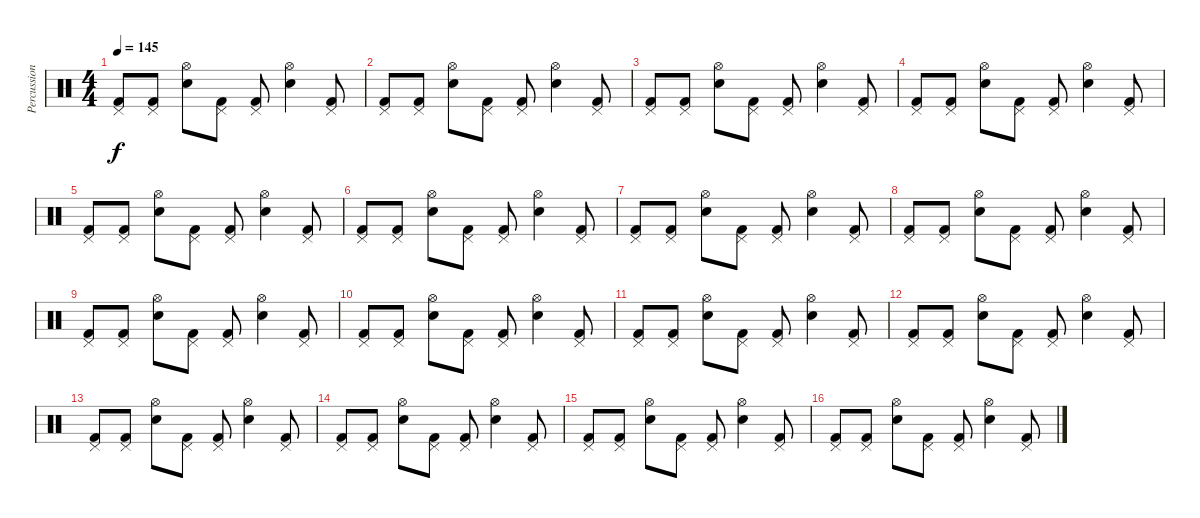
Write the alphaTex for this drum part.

\track ("Percussion" "Percussion") {instrument percussion}
\staff {score}
\articulation defaults
\ts (4 4)
\tempo 145
\clef neutral
\ks c
("Pedal Hi-Hat (hit)" "Kick (hit) 2").8{dy f} ("Pedal Hi-Hat (hit)" "Kick (hit) 2").8 ("Hi-Hat (open)" "Snare (hit) 2").8 ("Pedal Hi-Hat (hit)" "Kick (hit) 2").8 ("Pedal Hi-Hat (hit)" "Kick (hit) 2").8 ("Hi-Hat (open)" "Snare (hit) 2").4 ("Pedal Hi-Hat (hit)" "Kick (hit) 2").8 |
("Pedal Hi-Hat (hit)" "Kick (hit) 2").8 ("Pedal Hi-Hat (hit)" "Kick (hit) 2").8 ("Hi-Hat (open)" "Snare (hit) 2").8 ("Pedal Hi-Hat (hit)" "Kick (hit) 2").8 ("Pedal Hi-Hat (hit)" "Kick (hit) 2").8 ("Hi-Hat (open)" "Snare (hit) 2").4 ("Pedal Hi-Hat (hit)" "Kick (hit) 2").8 |
("Pedal Hi-Hat (hit)" "Kick (hit) 2").8 ("Pedal Hi-Hat (hit)" "Kick (hit) 2").8 ("Hi-Hat (open)" "Snare (hit) 2").8 ("Pedal Hi-Hat (hit)" "Kick (hit) 2").8 ("Pedal Hi-Hat (hit)" "Kick (hit) 2").8 ("Hi-Hat (open)" "Snare (hit) 2").4 ("Pedal Hi-Hat (hit)" "Kick (hit) 2").8 |
("Pedal Hi-Hat (hit)" "Kick (hit) 2").8 ("Pedal Hi-Hat (hit)" "Kick (hit) 2").8 ("Hi-Hat (open)" "Snare (hit) 2").8 ("Pedal Hi-Hat (hit)" "Kick (hit) 2").8 ("Pedal Hi-Hat (hit)" "Kick (hit) 2").8 ("Hi-Hat (open)" "Snare (hit) 2").4 ("Pedal Hi-Hat (hit)" "Kick (hit) 2").8 |
("Pedal Hi-Hat (hit)" "Kick (hit) 2").8 ("Pedal Hi-Hat (hit)" "Kick (hit) 2").8 ("Hi-Hat (open)" "Snare (hit) 2").8 ("Pedal Hi-Hat (hit)" "Kick (hit) 2").8 ("Pedal Hi-Hat (hit)" "Kick (hit) 2").8 ("Hi-Hat (open)" "Snare (hit) 2").4 ("Pedal Hi-Hat (hit)" "Kick (hit) 2").8 |
("Pedal Hi-Hat (hit)" "Kick (hit) 2").8 ("Pedal Hi-Hat (hit)" "Kick (hit) 2").8 ("Hi-Hat (open)" "Snare (hit) 2").8 ("Pedal Hi-Hat (hit)" "Kick (hit) 2").8 ("Pedal Hi-Hat (hit)" "Kick (hit) 2").8 ("Hi-Hat (open)" "Snare (hit) 2").4 ("Pedal Hi-Hat (hit)" "Kick (hit) 2").8 |
("Pedal Hi-Hat (hit)" "Kick (hit) 2").8 ("Pedal Hi-Hat (hit)" "Kick (hit) 2").8 ("Hi-Hat (open)" "Snare (hit) 2").8 ("Pedal Hi-Hat (hit)" "Kick (hit) 2").8 ("Pedal Hi-Hat (hit)" "Kick (hit) 2").8 ("Hi-Hat (open)" "Snare (hit) 2").4 ("Pedal Hi-Hat (hit)" "Kick (hit) 2").8 |
("Pedal Hi-Hat (hit)" "Kick (hit) 2").8 ("Pedal Hi-Hat (hit)" "Kick (hit) 2").8 ("Hi-Hat (open)" "Snare (hit) 2").8 ("Pedal Hi-Hat (hit)" "Kick (hit) 2").8 ("Pedal Hi-Hat (hit)" "Kick (hit) 2").8 ("Hi-Hat (open)" "Snare (hit) 2").4 ("Pedal Hi-Hat (hit)" "Kick (hit) 2").8 |
("Pedal Hi-Hat (hit)" "Kick (hit) 2").8 ("Pedal Hi-Hat (hit)" "Kick (hit) 2").8 ("Hi-Hat (open)" "Snare (hit) 2").8 ("Pedal Hi-Hat (hit)" "Kick (hit) 2").8 ("Pedal Hi-Hat (hit)" "Kick (hit) 2").8 ("Hi-Hat (open)" "Snare (hit) 2").4 ("Pedal Hi-Hat (hit)" "Kick (hit) 2").8 |
("Pedal Hi-Hat (hit)" "Kick (hit) 2").8 ("Pedal Hi-Hat (hit)" "Kick (hit) 2").8 ("Hi-Hat (open)" "Snare (hit) 2").8 ("Pedal Hi-Hat (hit)" "Kick (hit) 2").8 ("Pedal Hi-Hat (hit)" "Kick (hit) 2").8 ("Hi-Hat (open)" "Snare (hit) 2").4 ("Pedal Hi-Hat (hit)" "Kick (hit) 2").8 |
("Pedal Hi-Hat (hit)" "Kick (hit) 2").8 ("Pedal Hi-Hat (hit)" "Kick (hit) 2").8 ("Hi-Hat (open)" "Snare (hit) 2").8 ("Pedal Hi-Hat (hit)" "Kick (hit) 2").8 ("Pedal Hi-Hat (hit)" "Kick (hit) 2").8 ("Hi-Hat (open)" "Snare (hit) 2").4 ("Pedal Hi-Hat (hit)" "Kick (hit) 2").8 |
("Pedal Hi-Hat (hit)" "Kick (hit) 2").8 ("Pedal Hi-Hat (hit)" "Kick (hit) 2").8 ("Hi-Hat (open)" "Snare (hit) 2").8 ("Pedal Hi-Hat (hit)" "Kick (hit) 2").8 ("Pedal Hi-Hat (hit)" "Kick (hit) 2").8 ("Hi-Hat (open)" "Snare (hit) 2").4 ("Pedal Hi-Hat (hit)" "Kick (hit) 2").8 |
("Pedal Hi-Hat (hit)" "Kick (hit) 2").8 ("Pedal Hi-Hat (hit)" "Kick (hit) 2").8 ("Hi-Hat (open)" "Snare (hit) 2").8 ("Pedal Hi-Hat (hit)" "Kick (hit) 2").8 ("Pedal Hi-Hat (hit)" "Kick (hit) 2").8 ("Hi-Hat (open)" "Snare (hit) 2").4 ("Pedal Hi-Hat (hit)" "Kick (hit) 2").8 |
("Pedal Hi-Hat (hit)" "Kick (hit) 2").8 ("Pedal Hi-Hat (hit)" "Kick (hit) 2").8 ("Hi-Hat (open)" "Snare (hit) 2").8 ("Pedal Hi-Hat (hit)" "Kick (hit) 2").8 ("Pedal Hi-Hat (hit)" "Kick (hit) 2").8 ("Hi-Hat (open)" "Snare (hit) 2").4 ("Pedal Hi-Hat (hit)" "Kick (hit) 2").8 |
("Pedal Hi-Hat (hit)" "Kick (hit) 2").8 ("Pedal Hi-Hat (hit)" "Kick (hit) 2").8 ("Hi-Hat (open)" "Snare (hit) 2").8 ("Pedal Hi-Hat (hit)" "Kick (hit) 2").8 ("Pedal Hi-Hat (hit)" "Kick (hit) 2").8 ("Hi-Hat (open)" "Snare (hit) 2").4 ("Pedal Hi-Hat (hit)" "Kick (hit) 2").8 |
("Pedal Hi-Hat (hit)" "Kick (hit) 2").8 ("Pedal Hi-Hat (hit)" "Kick (hit) 2").8 ("Hi-Hat (open)" "Snare (hit) 2").8 ("Pedal Hi-Hat (hit)" "Kick (hit) 2").8 ("Pedal Hi-Hat (hit)" "Kick (hit) 2").8 ("Hi-Hat (open)" "Snare (hit) 2").4 ("Pedal Hi-Hat (hit)" "Kick (hit) 2").8
